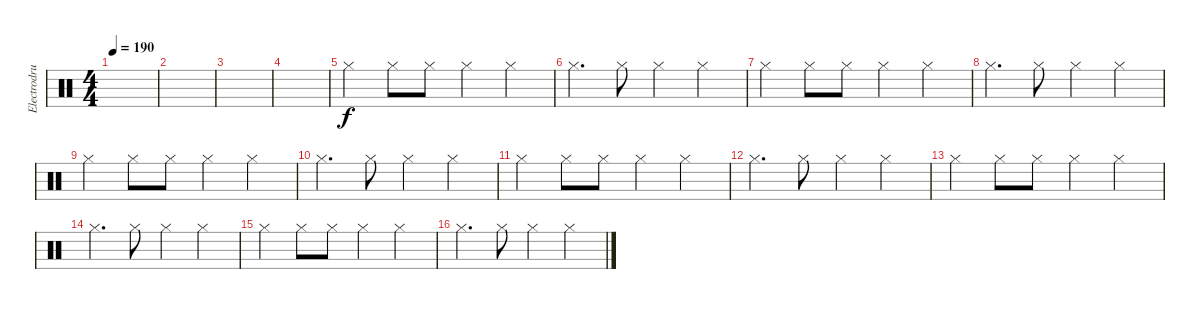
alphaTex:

\track ("Electrodrums1" "Electrodru") {instrument percussion}
\staff {score}
\articulation defaults
\ts (4 4)
\tempo 190
\clef neutral
\ks c
|
|
|
|
"Hi-Hat (closed)".4 "Hi-Hat (closed)".8 "Hi-Hat (closed)".8 "Hi-Hat (closed)".4 "Hi-Hat (closed)".4 |
"Hi-Hat (closed)".4{d} "Hi-Hat (closed)".8 "Hi-Hat (closed)".4 "Hi-Hat (closed)".4 |
"Hi-Hat (closed)".4 "Hi-Hat (closed)".8 "Hi-Hat (closed)".8 "Hi-Hat (closed)".4 "Hi-Hat (closed)".4 |
"Hi-Hat (closed)".4{d} "Hi-Hat (closed)".8 "Hi-Hat (closed)".4 "Hi-Hat (closed)".4 |
"Hi-Hat (closed)".4 "Hi-Hat (closed)".8 "Hi-Hat (closed)".8 "Hi-Hat (closed)".4 "Hi-Hat (closed)".4 |
"Hi-Hat (closed)".4{d} "Hi-Hat (closed)".8 "Hi-Hat (closed)".4 "Hi-Hat (closed)".4 |
"Hi-Hat (closed)".4 "Hi-Hat (closed)".8 "Hi-Hat (closed)".8 "Hi-Hat (closed)".4 "Hi-Hat (closed)".4 |
"Hi-Hat (closed)".4{d} "Hi-Hat (closed)".8 "Hi-Hat (closed)".4 "Hi-Hat (closed)".4 |
"Hi-Hat (closed)".4 "Hi-Hat (closed)".8 "Hi-Hat (closed)".8 "Hi-Hat (closed)".4 "Hi-Hat (closed)".4 |
"Hi-Hat (closed)".4{d} "Hi-Hat (closed)".8 "Hi-Hat (closed)".4 "Hi-Hat (closed)".4 |
"Hi-Hat (closed)".4 "Hi-Hat (closed)".8 "Hi-Hat (closed)".8 "Hi-Hat (closed)".4 "Hi-Hat (closed)".4 |
"Hi-Hat (closed)".4{d} "Hi-Hat (closed)".8 "Hi-Hat (closed)".4 "Hi-Hat (closed)".4
